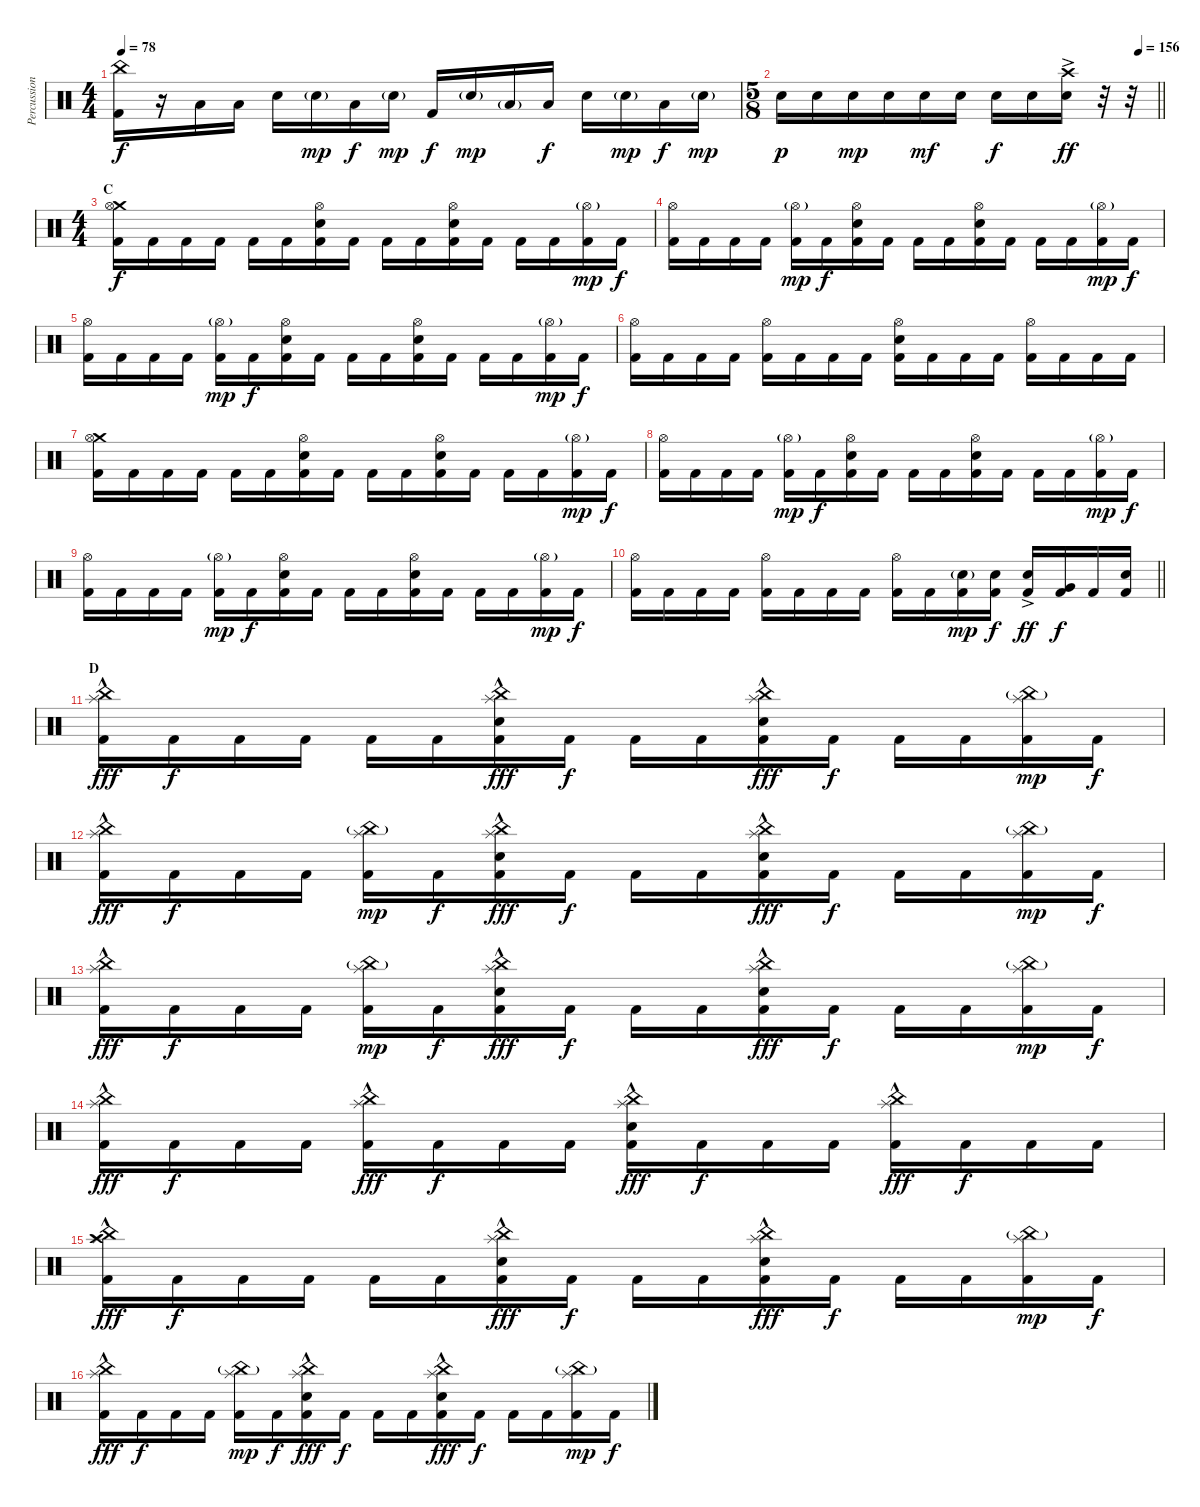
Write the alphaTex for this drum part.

\track ("Percussion" "Percussion") {instrument percussion}
\staff {score}
\articulation defaults
\ts (4 4)
\tempo 78
\clef neutral
\ks c
("China (hit)" "Kick (hit) 2").16{dy f} r.16 "Low Floor Tom (hit)".16 "Low Floor Tom (hit)".16 "Electric Snare (hit)".16 "Electric Snare (hit)"{g}.16{dy mp} "Low Floor Tom (hit)".16{dy f} "Electric Snare (hit)"{g}.16{dy mp} "Kick (hit) 2".16{dy f} "Electric Snare (hit)"{g}.16{dy mp} "Low Floor Tom (hit)"{g}.16 "Low Floor Tom (hit)".16{dy f} "Electric Snare (hit)".16 "Electric Snare (hit)"{g}.16{dy mp} "Low Floor Tom (hit)".16{dy f} "Electric Snare (hit)"{g}.16{dy mp} |
\ts (5 8)
\tempo (156 0.95)
\barLineRight lightlight "Electric Snare (hit)".16{dy p} "Electric Snare (hit)".16 "Electric Snare (hit)".16{dy mp} "Electric Snare (hit)".16 "Electric Snare (hit)".16{dy mf} "Electric Snare (hit)".16 "Electric Snare (hit)".16{dy f} "Electric Snare (hit)".16
("Crash high (hit)" "Electric Snare (hit)"{ac}).16{dy ff} r.32 r.32 |
\ts (4 4)
\section ("" "C")
("Crash medium (hit)" "Hi-Hat (open)" "Kick (hit) 2").16{dy f} "Kick (hit) 2".16 "Kick (hit) 2".16 "Kick (hit) 2".16 "Kick (hit) 2".16 "Kick (hit) 2".16 ("Hi-Hat (open)" "Electric Snare (hit)" "Kick (hit) 2").16 "Kick (hit) 2".16 "Kick (hit) 2".16 "Kick (hit) 2".16 ("Hi-Hat (open)" "Electric Snare (hit)" "Kick (hit) 2").16 "Kick (hit) 2".16 "Kick (hit) 2".16 "Kick (hit) 2".16 ("Hi-Hat (open)"{g} "Kick (hit) 2").16{dy mp} "Kick (hit) 2".16{dy f} |
("Hi-Hat (open)" "Kick (hit) 2").16 "Kick (hit) 2".16 "Kick (hit) 2".16 "Kick (hit) 2".16 ("Hi-Hat (open)"{g} "Kick (hit) 2").16{dy mp} "Kick (hit) 2".16{dy f} ("Hi-Hat (open)" "Electric Snare (hit)" "Kick (hit) 2").16 "Kick (hit) 2".16 "Kick (hit) 2".16 "Kick (hit) 2".16 ("Hi-Hat (open)" "Electric Snare (hit)" "Kick (hit) 2").16 "Kick (hit) 2".16 "Kick (hit) 2".16 "Kick (hit) 2".16 ("Hi-Hat (open)"{g} "Kick (hit) 2").16{dy mp} "Kick (hit) 2".16{dy f} |
("Hi-Hat (open)" "Kick (hit) 2").16 "Kick (hit) 2".16 "Kick (hit) 2".16 "Kick (hit) 2".16 ("Hi-Hat (open)"{g} "Kick (hit) 2").16{dy mp} "Kick (hit) 2".16{dy f} ("Hi-Hat (open)" "Electric Snare (hit)" "Kick (hit) 2").16 "Kick (hit) 2".16 "Kick (hit) 2".16 "Kick (hit) 2".16 ("Hi-Hat (open)" "Electric Snare (hit)" "Kick (hit) 2").16 "Kick (hit) 2".16 "Kick (hit) 2".16 "Kick (hit) 2".16 ("Hi-Hat (open)"{g} "Kick (hit) 2").16{dy mp} "Kick (hit) 2".16{dy f} |
("Hi-Hat (open)" "Kick (hit) 2").16 "Kick (hit) 2".16 "Kick (hit) 2".16 "Kick (hit) 2".16 ("Hi-Hat (open)" "Kick (hit) 2").16 "Kick (hit) 2".16 "Kick (hit) 2".16 "Kick (hit) 2".16 ("Hi-Hat (open)" "Electric Snare (hit)" "Kick (hit) 2").16 "Kick (hit) 2".16 "Kick (hit) 2".16 "Kick (hit) 2".16 ("Hi-Hat (open)" "Kick (hit) 2").16 "Kick (hit) 2".16 "Kick (hit) 2".16 "Kick (hit) 2".16 |
("Crash medium (hit)" "Hi-Hat (open)" "Kick (hit) 2").16 "Kick (hit) 2".16 "Kick (hit) 2".16 "Kick (hit) 2".16 "Kick (hit) 2".16 "Kick (hit) 2".16 ("Hi-Hat (open)" "Electric Snare (hit)" "Kick (hit) 2").16 "Kick (hit) 2".16 "Kick (hit) 2".16 "Kick (hit) 2".16 ("Hi-Hat (open)" "Electric Snare (hit)" "Kick (hit) 2").16 "Kick (hit) 2".16 "Kick (hit) 2".16 "Kick (hit) 2".16 ("Hi-Hat (open)"{g} "Kick (hit) 2").16{dy mp} "Kick (hit) 2".16{dy f} |
("Hi-Hat (open)" "Kick (hit) 2").16 "Kick (hit) 2".16 "Kick (hit) 2".16 "Kick (hit) 2".16 ("Hi-Hat (open)"{g} "Kick (hit) 2").16{dy mp} "Kick (hit) 2".16{dy f} ("Hi-Hat (open)" "Electric Snare (hit)" "Kick (hit) 2").16 "Kick (hit) 2".16 "Kick (hit) 2".16 "Kick (hit) 2".16 ("Hi-Hat (open)" "Electric Snare (hit)" "Kick (hit) 2").16 "Kick (hit) 2".16 "Kick (hit) 2".16 "Kick (hit) 2".16 ("Hi-Hat (open)"{g} "Kick (hit) 2").16{dy mp} "Kick (hit) 2".16{dy f} |
("Hi-Hat (open)" "Kick (hit) 2").16 "Kick (hit) 2".16 "Kick (hit) 2".16 "Kick (hit) 2".16 ("Hi-Hat (open)"{g} "Kick (hit) 2").16{dy mp} "Kick (hit) 2".16{dy f} ("Hi-Hat (open)" "Electric Snare (hit)" "Kick (hit) 2").16 "Kick (hit) 2".16 "Kick (hit) 2".16 "Kick (hit) 2".16 ("Hi-Hat (open)" "Electric Snare (hit)" "Kick (hit) 2").16 "Kick (hit) 2".16 "Kick (hit) 2".16 "Kick (hit) 2".16 ("Hi-Hat (open)"{g} "Kick (hit) 2").16{dy mp} "Kick (hit) 2".16{dy f} |
\barLineRight lightlight
("Hi-Hat (open)" "Kick (hit) 2").16 "Kick (hit) 2".16 "Kick (hit) 2".16 "Kick (hit) 2".16 ("Hi-Hat (open)" "Kick (hit) 2").16 "Kick (hit) 2".16 "Kick (hit) 2".16 "Kick (hit) 2".16 ("Hi-Hat (open)" "Kick (hit) 2").16 "Kick (hit) 2".16 ("Electric Snare (hit)"{g} "Kick (hit) 2").16{dy mp} ("Electric Snare (hit)" "Kick (hit) 2").16{dy f} ("Electric Snare (hit)"{ac} "Kick (hit) 2").16{dy ff} ("Very Low Tom (hit)" "Kick (hit) 2").16{dy f} "Kick (hit) 2".16 ("Electric Snare (hit)" "Kick (hit) 2").16 |
\section ("" "D")
("China (hit)" "Splash (hit)"{hac} "Kick (hit) 2").16{dy fff} "Kick (hit) 2".16{dy f} "Kick (hit) 2".16 "Kick (hit) 2".16 "Kick (hit) 2".16 "Kick (hit) 2".16 ("China (hit)" "Splash (hit)"{hac} "Electric Snare (hit)" "Kick (hit) 2").16{dy fff} "Kick (hit) 2".16{dy f} "Kick (hit) 2".16 "Kick (hit) 2".16 ("China (hit)" "Splash (hit)"{hac} "Electric Snare (hit)" "Kick (hit) 2").16{dy fff} "Kick (hit) 2".16{dy f} "Kick (hit) 2".16 "Kick (hit) 2".16 ("China (hit)"{g} "Splash (hit)" "Kick (hit) 2").16{dy mp} "Kick (hit) 2".16{dy f} |
("China (hit)" "Splash (hit)"{hac} "Kick (hit) 2").16{dy fff} "Kick (hit) 2".16{dy f} "Kick (hit) 2".16 "Kick (hit) 2".16 ("China (hit)"{g} "Splash (hit)" "Kick (hit) 2").16{dy mp} "Kick (hit) 2".16{dy f} ("China (hit)" "Splash (hit)"{hac} "Electric Snare (hit)" "Kick (hit) 2").16{dy fff} "Kick (hit) 2".16{dy f} "Kick (hit) 2".16 "Kick (hit) 2".16 ("China (hit)" "Splash (hit)"{hac} "Electric Snare (hit)" "Kick (hit) 2").16{dy fff} "Kick (hit) 2".16{dy f} "Kick (hit) 2".16 "Kick (hit) 2".16 ("China (hit)"{g} "Splash (hit)" "Kick (hit) 2").16{dy mp} "Kick (hit) 2".16{dy f} |
("China (hit)" "Splash (hit)"{hac} "Kick (hit) 2").16{dy fff} "Kick (hit) 2".16{dy f} "Kick (hit) 2".16 "Kick (hit) 2".16 ("China (hit)"{g} "Splash (hit)" "Kick (hit) 2").16{dy mp} "Kick (hit) 2".16{dy f} ("China (hit)" "Splash (hit)"{hac} "Electric Snare (hit)" "Kick (hit) 2").16{dy fff} "Kick (hit) 2".16{dy f} "Kick (hit) 2".16 "Kick (hit) 2".16 ("China (hit)" "Splash (hit)"{hac} "Electric Snare (hit)" "Kick (hit) 2").16{dy fff} "Kick (hit) 2".16{dy f} "Kick (hit) 2".16 "Kick (hit) 2".16 ("China (hit)"{g} "Splash (hit)" "Kick (hit) 2").16{dy mp} "Kick (hit) 2".16{dy f} |
("China (hit)" "Splash (hit)"{hac} "Kick (hit) 2").16{dy fff} "Kick (hit) 2".16{dy f} "Kick (hit) 2".16 "Kick (hit) 2".16 ("China (hit)" "Splash (hit)"{hac} "Kick (hit) 2").16{dy fff} "Kick (hit) 2".16{dy f} "Kick (hit) 2".16 "Kick (hit) 2".16 ("China (hit)" "Splash (hit)"{hac} "Electric Snare (hit)" "Kick (hit) 2").16{dy fff} "Kick (hit) 2".16{dy f} "Kick (hit) 2".16 "Kick (hit) 2".16 ("China (hit)" "Splash (hit)"{hac} "Kick (hit) 2").16{dy fff} "Kick (hit) 2".16{dy f} "Kick (hit) 2".16 "Kick (hit) 2".16 |
("China (hit)" "Splash (hit)"{hac} "Crash high (hit)" "Kick (hit) 2").16{dy fff} "Kick (hit) 2".16{dy f} "Kick (hit) 2".16 "Kick (hit) 2".16 "Kick (hit) 2".16 "Kick (hit) 2".16 ("China (hit)" "Splash (hit)"{hac} "Electric Snare (hit)" "Kick (hit) 2").16{dy fff} "Kick (hit) 2".16{dy f} "Kick (hit) 2".16 "Kick (hit) 2".16 ("China (hit)" "Splash (hit)"{hac} "Electric Snare (hit)" "Kick (hit) 2").16{dy fff} "Kick (hit) 2".16{dy f} "Kick (hit) 2".16 "Kick (hit) 2".16 ("China (hit)"{g} "Splash (hit)" "Kick (hit) 2").16{dy mp} "Kick (hit) 2".16{dy f} |
("China (hit)" "Splash (hit)"{hac} "Kick (hit) 2").16{dy fff} "Kick (hit) 2".16{dy f} "Kick (hit) 2".16 "Kick (hit) 2".16 ("China (hit)"{g} "Splash (hit)" "Kick (hit) 2").16{dy mp} "Kick (hit) 2".16{dy f} ("China (hit)" "Splash (hit)"{hac} "Electric Snare (hit)" "Kick (hit) 2").16{dy fff} "Kick (hit) 2".16{dy f} "Kick (hit) 2".16 "Kick (hit) 2".16 ("China (hit)" "Splash (hit)"{hac} "Electric Snare (hit)" "Kick (hit) 2").16{dy fff} "Kick (hit) 2".16{dy f} "Kick (hit) 2".16 "Kick (hit) 2".16 ("China (hit)"{g} "Splash (hit)" "Kick (hit) 2").16{dy mp} "Kick (hit) 2".16{dy f}
